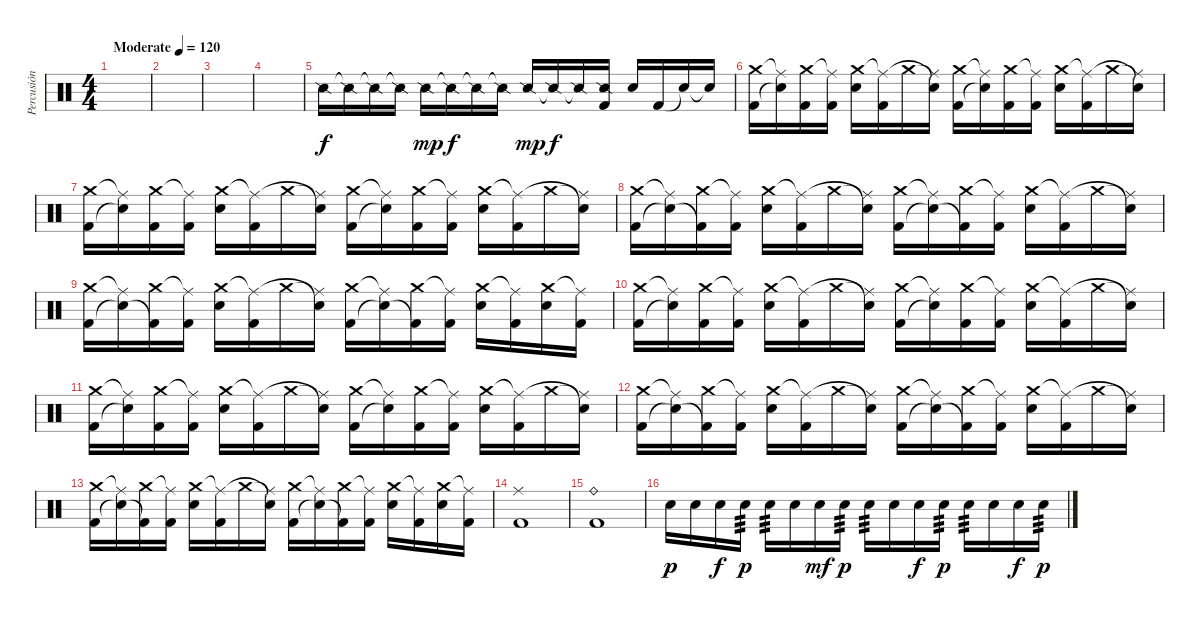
\track ("Percusión" "Percusión") {instrument percussion}
\staff {score}
\articulation defaults
\ts (4 4)
\tempo (120 "Moderate")
\clef neutral
\ks c
|
|
|
|
"Snare (side stick) 2".16 "Snare (side stick) 2"{t}.16{dy f} "Snare (side stick) 2"{t}.16 "Snare (side stick) 2"{t}.16 "Snare (side stick) 2".16{dy mp} "Snare (side stick) 2"{t}.16{dy f} "Snare (side stick) 2"{t}.16 "Snare (side stick) 2"{t}.16 "Snare (side stick) 2".16{dy mp} "Snare (side stick) 2"{t}.16{dy f} "Snare (side stick) 2"{t}.16 ("Kick (hit) 2" "Snare (side stick) 2").16 "Electric Snare (hit)".16 "Kick (hit) 2".16 "Snare (hit)"{t}.16 "Snare (hit)"{t}.16 |
("Kick (hit) 2" "Crash medium (hit)").16 ("Snare (hit)"{t} "Ride (middle)"{t}).16 ("Kick (hit) 2" "Crash medium (hit)").16 ("Kick (hit) 2" "Ride (middle)"{t}).16 ("Electric Snare (hit)" "Crash medium (hit)").16 ("Kick (hit) 2" "Ride (middle)"{t}).16 "Crash medium (hit)".16 ("Snare (hit)"{t} "Ride (middle)"{t}).16 ("Kick (hit) 2" "Crash medium (hit)").16 ("Snare (hit)"{t} "Ride (middle)"{t}).16 ("Kick (hit) 2" "Crash medium (hit)").16 ("Kick (hit) 2" "Ride (middle)"{t}).16 ("Electric Snare (hit)" "Crash medium (hit)").16 ("Kick (hit) 2" "Ride (middle)"{t}).16 "Crash medium (hit)".16 ("Snare (hit)"{t} "Ride (middle)"{t}).16 |
("Kick (hit) 2" "Crash medium (hit)").16 ("Snare (hit)"{t} "Ride (middle)"{t}).16 ("Kick (hit) 2" "Crash medium (hit)").16 ("Kick (hit) 2" "Ride (middle)"{t}).16 ("Electric Snare (hit)" "Crash medium (hit)").16 ("Kick (hit) 2" "Ride (middle)"{t}).16 "Crash medium (hit)".16 ("Snare (hit)"{t} "Ride (middle)"{t}).16 ("Kick (hit) 2" "Crash medium (hit)").16 ("Snare (hit)"{t} "Ride (middle)"{t}).16 ("Kick (hit) 2" "Crash medium (hit)").16 ("Kick (hit) 2" "Ride (middle)"{t}).16 ("Electric Snare (hit)" "Crash medium (hit)").16 ("Kick (hit) 2" "Ride (middle)"{t}).16 "Crash medium (hit)".16 ("Snare (hit)"{t} "Ride (middle)"{t}).16 |
("Kick (hit) 2" "Crash medium (hit)").16 ("Snare (hit)"{t} "Ride (middle)"{t}).16 ("Kick (hit) 2"{t} "Crash medium (hit)").16 ("Kick (hit) 2" "Ride (middle)"{t}).16 ("Electric Snare (hit)" "Crash medium (hit)").16 ("Kick (hit) 2" "Ride (middle)"{t}).16 "Crash medium (hit)".16 ("Snare (hit)"{t} "Ride (middle)"{t}).16 ("Kick (hit) 2" "Crash medium (hit)").16 ("Snare (hit)"{t} "Ride (middle)"{t}).16 ("Kick (hit) 2"{t} "Crash medium (hit)").16 ("Kick (hit) 2" "Ride (middle)"{t}).16 ("Electric Snare (hit)" "Crash medium (hit)").16 ("Kick (hit) 2" "Ride (middle)"{t}).16 "Crash medium (hit)".16 ("Snare (hit)"{t} "Ride (middle)"{t}).16 |
("Kick (hit) 2" "Crash medium (hit)").16 ("Snare (hit)"{t} "Ride (middle)"{t}).16 ("Kick (hit) 2"{t} "Crash medium (hit)").16 ("Kick (hit) 2" "Ride (middle)"{t}).16 ("Electric Snare (hit)" "Crash medium (hit)").16 ("Kick (hit) 2" "Ride (middle)"{t}).16 "Crash medium (hit)".16 ("Snare (hit)"{t} "Ride (middle)"{t}).16 ("Kick (hit) 2" "Crash medium (hit)").16 ("Snare (hit)"{t} "Ride (middle)"{t}).16 ("Kick (hit) 2"{t} "Crash medium (hit)").16 ("Kick (hit) 2" "Ride (middle)"{t}).16 ("Electric Snare (hit)" "Crash medium (hit)").16 ("Kick (hit) 2" "Ride (middle)"{t}).16 ("Electric Snare (hit)" "Crash medium (hit)").16 ("Kick (hit) 2" "Ride (middle)"{t}).16 |
("Kick (hit) 2" "Crash medium (hit)").16 ("Snare (hit)"{t} "Ride (middle)"{t}).16 ("Kick (hit) 2" "Crash medium (hit)").16 ("Kick (hit) 2" "Ride (middle)"{t}).16 ("Electric Snare (hit)" "Crash medium (hit)").16 ("Kick (hit) 2" "Ride (middle)"{t}).16 "Crash medium (hit)".16 ("Snare (hit)"{t} "Ride (middle)"{t}).16 ("Kick (hit) 2" "Crash medium (hit)").16 ("Snare (hit)"{t} "Ride (middle)"{t}).16 ("Kick (hit) 2" "Crash medium (hit)").16 ("Kick (hit) 2" "Ride (middle)"{t}).16 ("Electric Snare (hit)" "Crash medium (hit)").16 ("Kick (hit) 2" "Ride (middle)"{t}).16 "Crash medium (hit)".16 ("Snare (hit)"{t} "Ride (middle)"{t}).16 |
("Kick (hit) 2" "Crash medium (hit)").16 ("Snare (hit)"{t} "Ride (middle)"{t}).16 ("Kick (hit) 2" "Crash medium (hit)").16 ("Kick (hit) 2" "Ride (middle)"{t}).16 ("Electric Snare (hit)" "Crash medium (hit)").16 ("Kick (hit) 2" "Ride (middle)"{t}).16 "Crash medium (hit)".16 ("Snare (hit)"{t} "Ride (middle)"{t}).16 ("Kick (hit) 2" "Crash medium (hit)").16 ("Snare (hit)"{t} "Ride (middle)"{t}).16 ("Kick (hit) 2" "Crash medium (hit)").16 ("Kick (hit) 2" "Ride (middle)"{t}).16 ("Electric Snare (hit)" "Crash medium (hit)").16 ("Kick (hit) 2" "Ride (middle)"{t}).16 "Crash medium (hit)".16 ("Snare (hit)"{t} "Ride (middle)"{t}).16 |
("Kick (hit) 2" "Crash medium (hit)").16 ("Snare (hit)"{t} "Ride (middle)"{t}).16 ("Kick (hit) 2"{t} "Crash medium (hit)").16 ("Kick (hit) 2" "Ride (middle)"{t}).16 ("Electric Snare (hit)" "Crash medium (hit)").16 ("Kick (hit) 2" "Ride (middle)"{t}).16 "Crash medium (hit)".16 ("Snare (hit)"{t} "Ride (middle)"{t}).16 ("Kick (hit) 2" "Crash medium (hit)").16 ("Snare (hit)"{t} "Ride (middle)"{t}).16 ("Kick (hit) 2"{t} "Crash medium (hit)").16 ("Kick (hit) 2" "Ride (middle)"{t}).16 ("Electric Snare (hit)" "Crash medium (hit)").16 ("Kick (hit) 2" "Ride (middle)"{t}).16 "Crash medium (hit)".16 ("Snare (hit)"{t} "Ride (middle)"{t}).16 |
("Kick (hit) 2" "Crash medium (hit)").16 ("Snare (hit)"{t} "Ride (middle)"{t}).16 ("Kick (hit) 2"{t} "Crash medium (hit)").16 ("Kick (hit) 2" "Ride (middle)"{t}).16 ("Electric Snare (hit)" "Crash medium (hit)").16 ("Kick (hit) 2" "Ride (middle)"{t}).16 "Crash medium (hit)".16 ("Snare (hit)"{t} "Ride (middle)"{t}).16 ("Kick (hit) 2" "Crash medium (hit)").16 ("Snare (hit)"{t} "Ride (middle)"{t}).16 ("Kick (hit) 2"{t} "Crash medium (hit)").16 ("Kick (hit) 2" "Ride (middle)"{t}).16 ("Electric Snare (hit)" "Crash medium (hit)").16 ("Kick (hit) 2" "Ride (middle)"{t}).16 ("Electric Snare (hit)" "Crash medium (hit)").16 ("Kick (hit) 2" "Ride (middle)"{t}).16 |
("Ride (middle)" "Kick (hit) 2").1 |
("Ride (bell)" "Kick (hit) 2").1 |
"Electric Snare (hit)".16{dy p} "Electric Snare (hit)".16 "Electric Snare (hit)".16{dy f} "Electric Snare (hit)".16{tp 3 dy p} "Electric Snare (hit)".16{tp 3} "Electric Snare (hit)".16 "Electric Snare (hit)".16{dy mf} "Electric Snare (hit)".16{tp 3 dy p} "Electric Snare (hit)".16{tp 3} "Electric Snare (hit)".16 "Electric Snare (hit)".16{dy f} "Electric Snare (hit)".16{tp 3 dy p} "Electric Snare (hit)".16{tp 3} "Electric Snare (hit)".16 "Electric Snare (hit)".16{dy f} "Electric Snare (hit)".16{tp 3 dy p}
